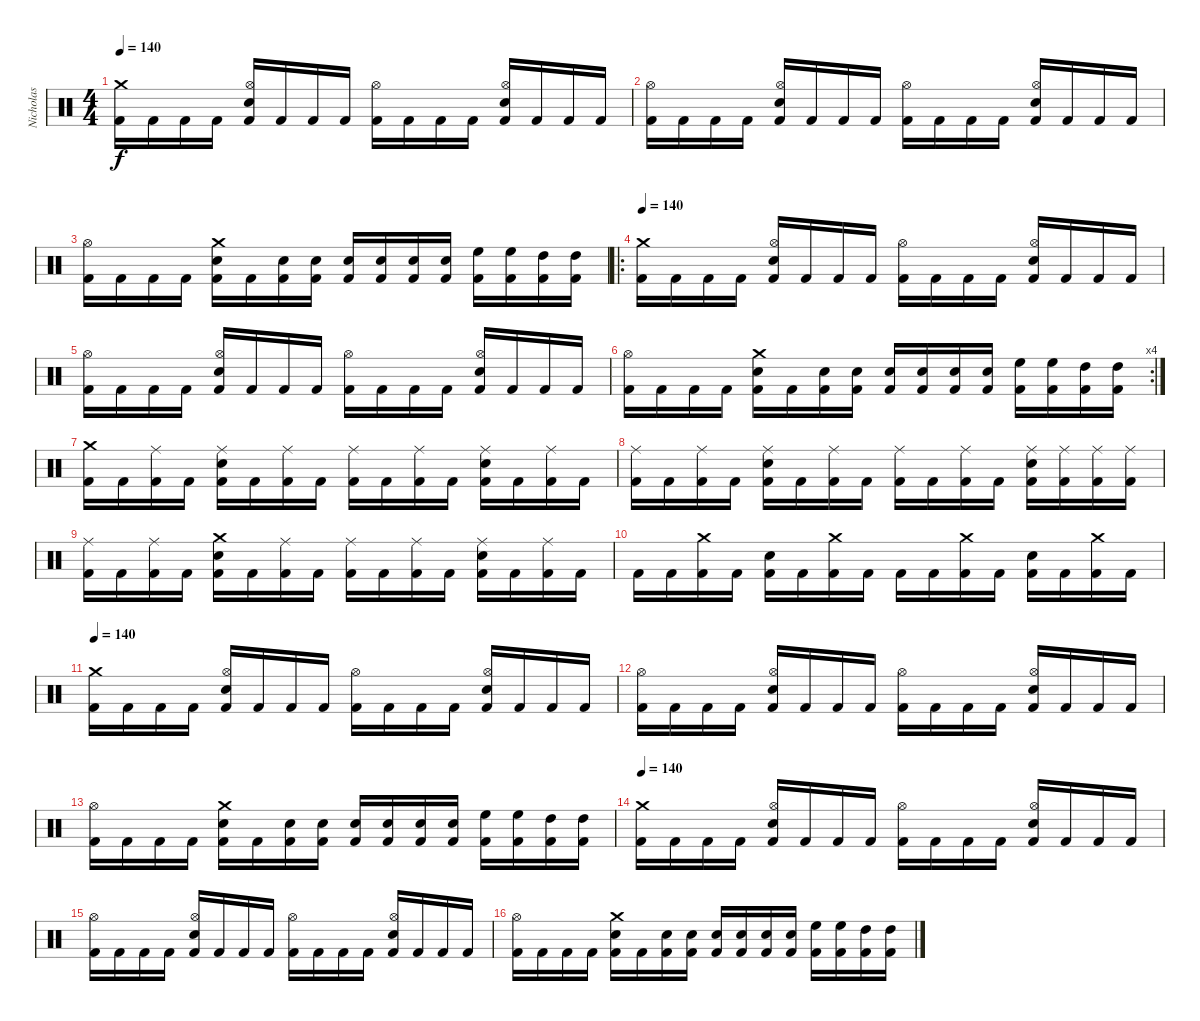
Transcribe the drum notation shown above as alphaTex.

\track ("Nicholas" "Nicholas") {instrument percussion}
\staff {score}
\articulation defaults
\ts (4 4)
\tempo 140
\clef neutral
\ks c
("Crash medium (hit)" "Kick (hit) 2").16{dy f} "Kick (hit) 2".16 "Kick (hit) 2".16 "Kick (hit) 2".16 ("Hi-Hat (open)" "Snare (hit) 2" "Kick (hit) 2").16 "Kick (hit) 2".16 "Kick (hit) 2".16 "Kick (hit) 2".16 ("Hi-Hat (open)" "Kick (hit) 2").16 "Kick (hit) 2".16 "Kick (hit) 2".16 "Kick (hit) 2".16 ("Hi-Hat (open)" "Snare (hit) 2" "Kick (hit) 2").16 "Kick (hit) 2".16 "Kick (hit) 2".16 "Kick (hit) 2".16 |
("Hi-Hat (open)" "Kick (hit) 2").16 "Kick (hit) 2".16 "Kick (hit) 2".16 "Kick (hit) 2".16 ("Hi-Hat (open)" "Snare (hit) 2" "Kick (hit) 2").16 "Kick (hit) 2".16 "Kick (hit) 2".16 "Kick (hit) 2".16 ("Hi-Hat (open)" "Kick (hit) 2").16 "Kick (hit) 2".16 "Kick (hit) 2".16 "Kick (hit) 2".16 ("Hi-Hat (open)" "Snare (hit) 2" "Kick (hit) 2").16 "Kick (hit) 2".16 "Kick (hit) 2".16 "Kick (hit) 2".16 |
("Hi-Hat (open)" "Kick (hit) 2").16 "Kick (hit) 2".16 "Kick (hit) 2".16 "Kick (hit) 2".16 ("Crash medium (hit)" "Snare (hit) 2" "Kick (hit) 2").16 "Kick (hit) 2".16 ("Snare (hit) 2" "Kick (hit) 2").16 ("Snare (hit) 2" "Kick (hit) 2").16 ("Snare (hit) 2" "Kick (hit) 2").16 ("Snare (hit) 2" "Kick (hit) 2").16 ("Snare (hit) 2" "Kick (hit) 2").16 ("Snare (hit) 2" "Kick (hit) 2").16 ("High Floor Tom (hit)" "Kick (hit) 2").16 ("High Floor Tom (hit)" "Kick (hit) 2").16 ("High Tom (hit)" "Kick (hit) 2").16 ("High Tom (hit)" "Kick (hit) 2").16 |
\ro
\tempo 140
("Crash medium (hit)" "Kick (hit) 2").16 "Kick (hit) 2".16 "Kick (hit) 2".16 "Kick (hit) 2".16 ("Hi-Hat (open)" "Snare (hit) 2" "Kick (hit) 2").16 "Kick (hit) 2".16 "Kick (hit) 2".16 "Kick (hit) 2".16 ("Hi-Hat (open)" "Kick (hit) 2").16 "Kick (hit) 2".16 "Kick (hit) 2".16 "Kick (hit) 2".16 ("Hi-Hat (open)" "Snare (hit) 2" "Kick (hit) 2").16 "Kick (hit) 2".16 "Kick (hit) 2".16 "Kick (hit) 2".16 |
("Hi-Hat (open)" "Kick (hit) 2").16 "Kick (hit) 2".16 "Kick (hit) 2".16 "Kick (hit) 2".16 ("Hi-Hat (open)" "Snare (hit) 2" "Kick (hit) 2").16 "Kick (hit) 2".16 "Kick (hit) 2".16 "Kick (hit) 2".16 ("Hi-Hat (open)" "Kick (hit) 2").16 "Kick (hit) 2".16 "Kick (hit) 2".16 "Kick (hit) 2".16 ("Hi-Hat (open)" "Snare (hit) 2" "Kick (hit) 2").16 "Kick (hit) 2".16 "Kick (hit) 2".16 "Kick (hit) 2".16 |
\rc 4
("Hi-Hat (open)" "Kick (hit) 2").16 "Kick (hit) 2".16 "Kick (hit) 2".16 "Kick (hit) 2".16 ("Crash medium (hit)" "Snare (hit) 2" "Kick (hit) 2").16 "Kick (hit) 2".16 ("Snare (hit) 2" "Kick (hit) 2").16 ("Snare (hit) 2" "Kick (hit) 2").16 ("Snare (hit) 2" "Kick (hit) 2").16 ("Snare (hit) 2" "Kick (hit) 2").16 ("Snare (hit) 2" "Kick (hit) 2").16 ("Snare (hit) 2" "Kick (hit) 2").16 ("High Floor Tom (hit)" "Kick (hit) 2").16 ("High Floor Tom (hit)" "Kick (hit) 2").16 ("High Tom (hit)" "Kick (hit) 2").16 ("High Tom (hit)" "Kick (hit) 2").16 |
("Crash medium (hit)" "Kick (hit) 2").16 "Kick (hit) 2".16 ("Ride (middle)" "Kick (hit) 2").16 "Kick (hit) 2".16 ("Ride (middle)" "Snare (hit) 2" "Kick (hit) 2").16 "Kick (hit) 2".16 ("Ride (middle)" "Kick (hit) 2").16 "Kick (hit) 2".16 ("Ride (middle)" "Kick (hit) 2").16 "Kick (hit) 2".16 ("Ride (middle)" "Kick (hit) 2").16 "Kick (hit) 2".16 ("Ride (middle)" "Snare (hit) 2" "Kick (hit) 2").16 "Kick (hit) 2".16 ("Ride (middle)" "Kick (hit) 2").16 "Kick (hit) 2".16 |
("Ride (middle)" "Kick (hit) 2").16 "Kick (hit) 2".16 ("Ride (middle)" "Kick (hit) 2").16 "Kick (hit) 2".16 ("Ride (middle)" "Snare (hit) 2" "Kick (hit) 2").16 "Kick (hit) 2".16 ("Ride (middle)" "Kick (hit) 2").16 "Kick (hit) 2".16 ("Ride (middle)" "Kick (hit) 2").16 "Kick (hit) 2".16 ("Ride (middle)" "Kick (hit) 2").16 "Kick (hit) 2".16 ("Ride (middle)" "Snare (hit) 2" "Kick (hit) 2").16 ("Ride (middle)" "Kick (hit) 2").16 ("Ride (middle)" "Kick (hit) 2").16 ("Ride (middle)" "Kick (hit) 2").16 |
("Ride (middle)" "Kick (hit) 2").16 "Kick (hit) 2".16 ("Ride (middle)" "Kick (hit) 2").16 "Kick (hit) 2".16 ("Crash medium (hit)" "Snare (hit) 2" "Kick (hit) 2").16 "Kick (hit) 2".16 ("Ride (middle)" "Kick (hit) 2").16 "Kick (hit) 2".16 ("Ride (middle)" "Kick (hit) 2").16 "Kick (hit) 2".16 ("Ride (middle)" "Kick (hit) 2").16 "Kick (hit) 2".16 ("Ride (middle)" "Snare (hit) 2" "Kick (hit) 2").16 "Kick (hit) 2".16 ("Ride (middle)" "Kick (hit) 2").16 "Kick (hit) 2".16 |
"Kick (hit) 2".16 "Kick (hit) 2".16 ("Crash medium (hit)" "Kick (hit) 2").16 "Kick (hit) 2".16 ("Snare (hit) 2" "Kick (hit) 2").16 "Kick (hit) 2".16 ("Crash medium (hit)" "Kick (hit) 2").16 "Kick (hit) 2".16 "Kick (hit) 2".16 "Kick (hit) 2".16 ("Crash medium (hit)" "Kick (hit) 2").16 "Kick (hit) 2".16 ("Snare (hit) 2" "Kick (hit) 2").16 "Kick (hit) 2".16 ("Crash medium (hit)" "Kick (hit) 2").16 "Kick (hit) 2".16 |
\tempo 140
("Crash medium (hit)" "Kick (hit) 2").16 "Kick (hit) 2".16 "Kick (hit) 2".16 "Kick (hit) 2".16 ("Hi-Hat (open)" "Snare (hit) 2" "Kick (hit) 2").16 "Kick (hit) 2".16 "Kick (hit) 2".16 "Kick (hit) 2".16 ("Hi-Hat (open)" "Kick (hit) 2").16 "Kick (hit) 2".16 "Kick (hit) 2".16 "Kick (hit) 2".16 ("Hi-Hat (open)" "Snare (hit) 2" "Kick (hit) 2").16 "Kick (hit) 2".16 "Kick (hit) 2".16 "Kick (hit) 2".16 |
("Hi-Hat (open)" "Kick (hit) 2").16 "Kick (hit) 2".16 "Kick (hit) 2".16 "Kick (hit) 2".16 ("Hi-Hat (open)" "Snare (hit) 2" "Kick (hit) 2").16 "Kick (hit) 2".16 "Kick (hit) 2".16 "Kick (hit) 2".16 ("Hi-Hat (open)" "Kick (hit) 2").16 "Kick (hit) 2".16 "Kick (hit) 2".16 "Kick (hit) 2".16 ("Hi-Hat (open)" "Snare (hit) 2" "Kick (hit) 2").16 "Kick (hit) 2".16 "Kick (hit) 2".16 "Kick (hit) 2".16 |
("Hi-Hat (open)" "Kick (hit) 2").16 "Kick (hit) 2".16 "Kick (hit) 2".16 "Kick (hit) 2".16 ("Crash medium (hit)" "Snare (hit) 2" "Kick (hit) 2").16 "Kick (hit) 2".16 ("Snare (hit) 2" "Kick (hit) 2").16 ("Snare (hit) 2" "Kick (hit) 2").16 ("Snare (hit) 2" "Kick (hit) 2").16 ("Snare (hit) 2" "Kick (hit) 2").16 ("Snare (hit) 2" "Kick (hit) 2").16 ("Snare (hit) 2" "Kick (hit) 2").16 ("High Floor Tom (hit)" "Kick (hit) 2").16 ("High Floor Tom (hit)" "Kick (hit) 2").16 ("High Tom (hit)" "Kick (hit) 2").16 ("High Tom (hit)" "Kick (hit) 2").16 |
\tempo 140
("Crash medium (hit)" "Kick (hit) 2").16 "Kick (hit) 2".16 "Kick (hit) 2".16 "Kick (hit) 2".16 ("Hi-Hat (open)" "Snare (hit) 2" "Kick (hit) 2").16 "Kick (hit) 2".16 "Kick (hit) 2".16 "Kick (hit) 2".16 ("Hi-Hat (open)" "Kick (hit) 2").16 "Kick (hit) 2".16 "Kick (hit) 2".16 "Kick (hit) 2".16 ("Hi-Hat (open)" "Snare (hit) 2" "Kick (hit) 2").16 "Kick (hit) 2".16 "Kick (hit) 2".16 "Kick (hit) 2".16 |
("Hi-Hat (open)" "Kick (hit) 2").16 "Kick (hit) 2".16 "Kick (hit) 2".16 "Kick (hit) 2".16 ("Hi-Hat (open)" "Snare (hit) 2" "Kick (hit) 2").16 "Kick (hit) 2".16 "Kick (hit) 2".16 "Kick (hit) 2".16 ("Hi-Hat (open)" "Kick (hit) 2").16 "Kick (hit) 2".16 "Kick (hit) 2".16 "Kick (hit) 2".16 ("Hi-Hat (open)" "Snare (hit) 2" "Kick (hit) 2").16 "Kick (hit) 2".16 "Kick (hit) 2".16 "Kick (hit) 2".16 |
("Hi-Hat (open)" "Kick (hit) 2").16 "Kick (hit) 2".16 "Kick (hit) 2".16 "Kick (hit) 2".16 ("Crash medium (hit)" "Snare (hit) 2" "Kick (hit) 2").16 "Kick (hit) 2".16 ("Snare (hit) 2" "Kick (hit) 2").16 ("Snare (hit) 2" "Kick (hit) 2").16 ("Snare (hit) 2" "Kick (hit) 2").16 ("Snare (hit) 2" "Kick (hit) 2").16 ("Snare (hit) 2" "Kick (hit) 2").16 ("Snare (hit) 2" "Kick (hit) 2").16 ("High Floor Tom (hit)" "Kick (hit) 2").16 ("High Floor Tom (hit)" "Kick (hit) 2").16 ("High Tom (hit)" "Kick (hit) 2").16 ("High Tom (hit)" "Kick (hit) 2").16
